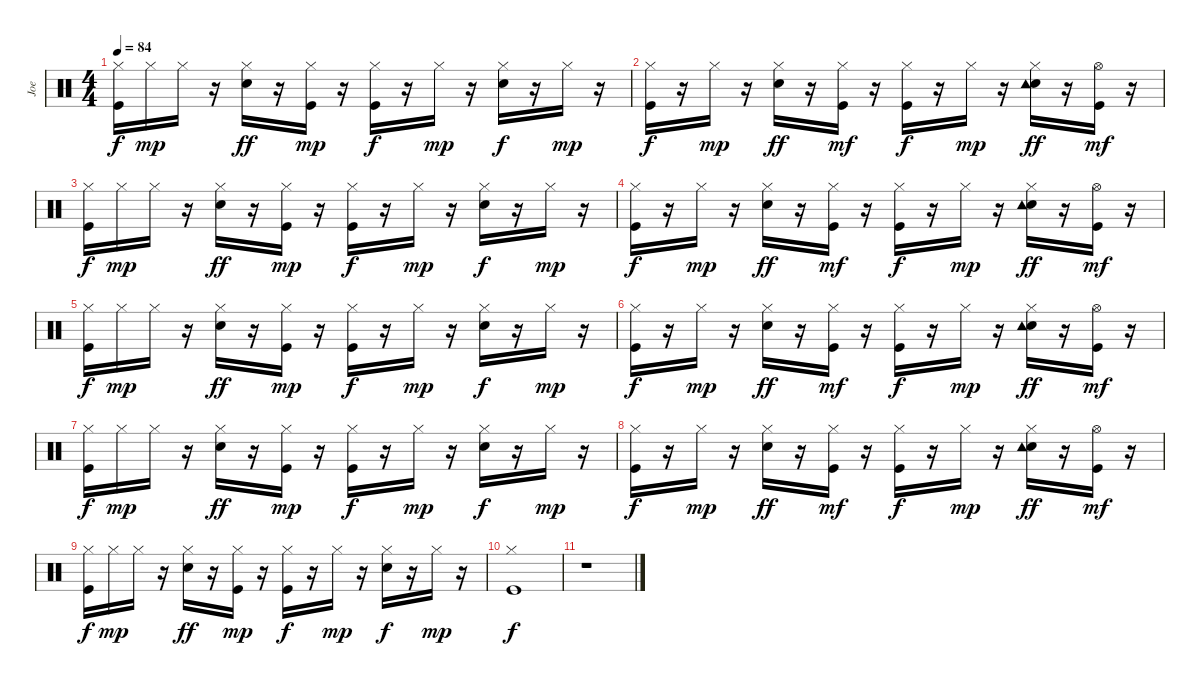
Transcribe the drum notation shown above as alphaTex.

\track ("Joe" "Joe") {instrument percussion}
\staff {score}
\articulation defaults
\ts (4 4)
\tempo 84
\clef neutral
\ks c
("Kick (hit)" "Hi-Hat (closed)").16{dy f} "Hi-Hat (closed)".16{dy mp} "Hi-Hat (closed)".16 r.16 ("Snare (hit) 2" "Hi-Hat (closed)").16{dy ff} r.16 ("Kick (hit)" "Hi-Hat (closed)").16{dy mp} r.16 ("Kick (hit)" "Hi-Hat (closed)").16{dy f} r.16 "Hi-Hat (closed)".16{dy mp} r.16 ("Snare (hit) 2" "Hi-Hat (closed)").16{dy f} r.16 "Hi-Hat (closed)".16{dy mp} r.16 |
("Kick (hit)" "Hi-Hat (closed)").16{dy f} r.16 "Hi-Hat (closed)".16{dy mp} r.16 ("Snare (hit) 2" "Hi-Hat (closed)").16{dy ff} r.16 ("Kick (hit)" "Hi-Hat (closed)").16{dy mf} r.16 ("Kick (hit)" "Hi-Hat (closed)").16{dy f} r.16 "Hi-Hat (closed)".16{dy mp} r.16 ("Snare (hit) 2" "Hi-Hat (closed)" "Tambourine (hit)").16{dy ff} r.16 ("Kick (hit)" "Hi-Hat (open)").16{dy mf} r.16 |
("Kick (hit)" "Hi-Hat (closed)").16{dy f} "Hi-Hat (closed)".16{dy mp} "Hi-Hat (closed)".16 r.16 ("Snare (hit) 2" "Hi-Hat (closed)").16{dy ff} r.16 ("Kick (hit)" "Hi-Hat (closed)").16{dy mp} r.16 ("Kick (hit)" "Hi-Hat (closed)").16{dy f} r.16 "Hi-Hat (closed)".16{dy mp} r.16 ("Snare (hit) 2" "Hi-Hat (closed)").16{dy f} r.16 "Hi-Hat (closed)".16{dy mp} r.16 |
("Kick (hit)" "Hi-Hat (closed)").16{dy f} r.16 "Hi-Hat (closed)".16{dy mp} r.16 ("Snare (hit) 2" "Hi-Hat (closed)").16{dy ff} r.16 ("Kick (hit)" "Hi-Hat (closed)").16{dy mf} r.16 ("Kick (hit)" "Hi-Hat (closed)").16{dy f} r.16 "Hi-Hat (closed)".16{dy mp} r.16 ("Snare (hit) 2" "Hi-Hat (closed)" "Tambourine (hit)").16{dy ff} r.16 ("Kick (hit)" "Hi-Hat (open)").16{dy mf} r.16 |
("Kick (hit)" "Hi-Hat (closed)").16{dy f} "Hi-Hat (closed)".16{dy mp} "Hi-Hat (closed)".16 r.16 ("Snare (hit) 2" "Hi-Hat (closed)").16{dy ff} r.16 ("Kick (hit)" "Hi-Hat (closed)").16{dy mp} r.16 ("Kick (hit)" "Hi-Hat (closed)").16{dy f} r.16 "Hi-Hat (closed)".16{dy mp} r.16 ("Snare (hit) 2" "Hi-Hat (closed)").16{dy f} r.16 "Hi-Hat (closed)".16{dy mp} r.16 |
("Kick (hit)" "Hi-Hat (closed)").16{dy f} r.16 "Hi-Hat (closed)".16{dy mp} r.16 ("Snare (hit) 2" "Hi-Hat (closed)").16{dy ff} r.16 ("Kick (hit)" "Hi-Hat (closed)").16{dy mf} r.16 ("Kick (hit)" "Hi-Hat (closed)").16{dy f} r.16 "Hi-Hat (closed)".16{dy mp} r.16 ("Snare (hit) 2" "Hi-Hat (closed)" "Tambourine (hit)").16{dy ff} r.16 ("Kick (hit)" "Hi-Hat (open)").16{dy mf} r.16 |
("Kick (hit)" "Hi-Hat (closed)").16{dy f} "Hi-Hat (closed)".16{dy mp} "Hi-Hat (closed)".16 r.16 ("Snare (hit) 2" "Hi-Hat (closed)").16{dy ff} r.16 ("Kick (hit)" "Hi-Hat (closed)").16{dy mp} r.16 ("Kick (hit)" "Hi-Hat (closed)").16{dy f} r.16 "Hi-Hat (closed)".16{dy mp} r.16 ("Snare (hit) 2" "Hi-Hat (closed)").16{dy f} r.16 "Hi-Hat (closed)".16{dy mp} r.16 |
("Kick (hit)" "Hi-Hat (closed)").16{dy f} r.16 "Hi-Hat (closed)".16{dy mp} r.16 ("Snare (hit) 2" "Hi-Hat (closed)").16{dy ff} r.16 ("Kick (hit)" "Hi-Hat (closed)").16{dy mf} r.16 ("Kick (hit)" "Hi-Hat (closed)").16{dy f} r.16 "Hi-Hat (closed)".16{dy mp} r.16 ("Snare (hit) 2" "Hi-Hat (closed)" "Tambourine (hit)").16{dy ff} r.16 ("Kick (hit)" "Hi-Hat (open)").16{dy mf} r.16 |
("Kick (hit)" "Hi-Hat (closed)").16{dy f} "Hi-Hat (closed)".16{dy mp} "Hi-Hat (closed)".16 r.16 ("Snare (hit) 2" "Hi-Hat (closed)").16{dy ff} r.16 ("Kick (hit)" "Hi-Hat (closed)").16{dy mp} r.16 ("Kick (hit)" "Hi-Hat (closed)").16{dy f} r.16 "Hi-Hat (closed)".16{dy mp} r.16 ("Snare (hit) 2" "Hi-Hat (closed)").16{dy f} r.16 "Hi-Hat (closed)".16{dy mp} r.16 |
("Kick (hit)" "Hi-Hat (closed)").1{dy f} |
r.1
